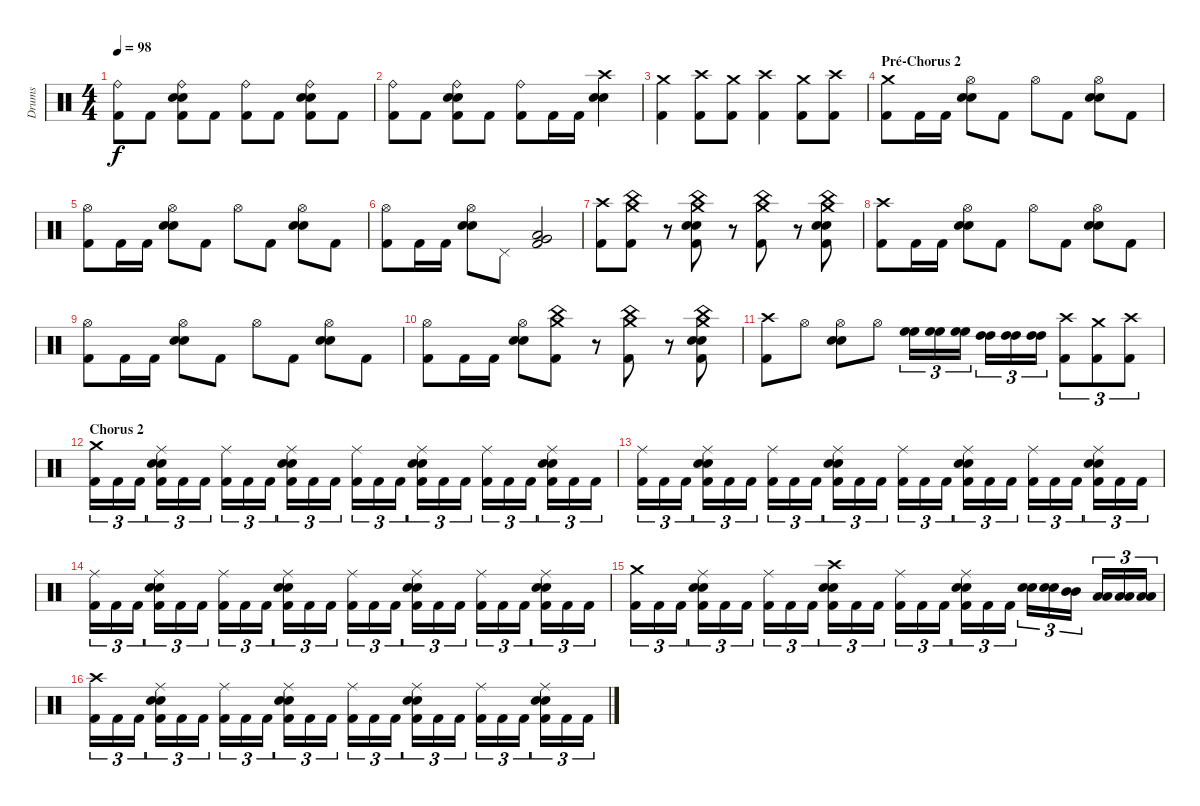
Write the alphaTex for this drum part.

\track ("Drums" "Drums") {instrument percussion}
\staff {score}
\articulation defaults
\ts (4 4)
\tempo 98
\clef neutral
\ks c
("Ride (bell)" "Kick (hit) 2").8{dy f} "Kick (hit) 2".8 ("Ride (bell)" "Snare (hit) 2" "Electric Snare (hit)" "Kick (hit) 2").8 "Kick (hit) 2".8 ("Ride (bell)" "Kick (hit) 2").8 "Kick (hit) 2".8 ("Ride (bell)" "Snare (hit) 2" "Electric Snare (hit)" "Kick (hit) 2").8 "Kick (hit) 2".8 |
("Ride (bell)" "Kick (hit) 2").8 "Kick (hit) 2".8 ("Ride (bell)" "Snare (hit) 2" "Electric Snare (hit)" "Kick (hit) 2").8 "Kick (hit) 2".8 ("Ride (bell)" "Kick (hit) 2").8 "Kick (hit) 2".16 "Kick (hit) 2".16 ("Crash high (hit)" "Electric Snare (hit)" "Snare (hit) 2").4 |
("Crash medium (hit)" "Kick (hit) 2").4 ("Crash high (hit)" "Kick (hit) 2").8 ("Crash medium (hit)" "Kick (hit) 2").8 ("Crash high (hit)" "Kick (hit) 2").4 ("Crash medium (hit)" "Kick (hit) 2").8 ("Crash high (hit)" "Kick (hit) 2").8 |
\section ("" "Pré-Chorus 2")
("Crash medium (hit)" "Kick (hit) 2").8 "Kick (hit) 2".16 "Kick (hit) 2".16 ("Hi-Hat (open)" "Snare (hit) 2" "Electric Snare (hit)").8 "Kick (hit) 2".8 "Hi-Hat (open)".8 "Kick (hit) 2".8 ("Hi-Hat (open)" "Snare (hit) 2" "Electric Snare (hit)").8 "Kick (hit) 2".8 |
("Hi-Hat (open)" "Kick (hit) 2").8 "Kick (hit) 2".16 "Kick (hit) 2".16 ("Hi-Hat (open)" "Snare (hit) 2" "Electric Snare (hit)").8 "Kick (hit) 2".8 "Hi-Hat (open)".8 "Kick (hit) 2".8 ("Hi-Hat (open)" "Snare (hit) 2" "Electric Snare (hit)").8 "Kick (hit) 2".8 |
("Hi-Hat (open)" "Kick (hit) 2").8 "Kick (hit) 2".16 "Kick (hit) 2".16 ("Hi-Hat (open)" "Snare (hit) 2" "Electric Snare (hit)").8 "Pedal Hi-Hat (hit)".8 ("Very Low Tom (hit)" "Low Floor Tom (hit)" "Kick (hit) 2").2 |
("Crash high (hit)" "Kick (hit) 2").8 ("China (hit)" "Crash medium (hit)" "Kick (hit) 2").8 r.8 ("China (hit)" "Snare (hit) 2" "Electric Snare (hit)" "Crash medium (hit)" "Kick (hit) 2").8 r.8 ("China (hit)" "Crash medium (hit)" "Kick (hit) 2").8 r.8 ("China (hit)" "Snare (hit) 2" "Electric Snare (hit)" "Crash medium (hit)" "Kick (hit) 2").8 |
("Crash high (hit)" "Kick (hit) 2").8 "Kick (hit) 2".16 "Kick (hit) 2".16 ("Hi-Hat (open)" "Snare (hit) 2" "Electric Snare (hit)").8 "Kick (hit) 2".8 "Hi-Hat (open)".8 "Kick (hit) 2".8 ("Hi-Hat (open)" "Snare (hit) 2" "Electric Snare (hit)").8 "Kick (hit) 2".8 |
("Hi-Hat (open)" "Kick (hit) 2").8 "Kick (hit) 2".16 "Kick (hit) 2".16 ("Hi-Hat (open)" "Snare (hit) 2" "Electric Snare (hit)").8 "Kick (hit) 2".8 "Hi-Hat (open)".8 "Kick (hit) 2".8 ("Hi-Hat (open)" "Snare (hit) 2" "Electric Snare (hit)").8 "Kick (hit) 2".8 |
("Hi-Hat (open)" "Kick (hit) 2").8 "Kick (hit) 2".16 "Kick (hit) 2".16 ("Hi-Hat (open)" "Snare (hit) 2" "Electric Snare (hit)").8 ("China (hit)" "Crash medium (hit)" "Kick (hit) 2").8 r.8 ("China (hit)" "Crash medium (hit)" "Kick (hit) 2").8 r.8 ("China (hit)" "Snare (hit) 2" "Electric Snare (hit)" "Crash medium (hit)" "Kick (hit) 2").8 |
("Crash high (hit)" "Kick (hit) 2").8 "Hi-Hat (open)".8 ("Hi-Hat (open)" "Snare (hit) 2" "Electric Snare (hit)").8 "Hi-Hat (open)".8 ("High Floor Tom (hit)" "High Floor Tom (hit)").16{tu (3 2)} ("High Floor Tom (hit)" "High Floor Tom (hit)").16{tu (3 2)} ("High Floor Tom (hit)" "High Floor Tom (hit)").16{tu (3 2)} ("High Tom (hit)" "High Tom (hit)").16{tu (3 2)} ("High Tom (hit)" "High Tom (hit)").16{tu (3 2)} ("High Tom (hit)" "High Tom (hit)").16{tu (3 2)} ("Crash high (hit)" "Kick (hit) 2").8{tu (3 2)} ("Crash medium (hit)" "Kick (hit) 2").8{tu (3 2)} ("Crash high (hit)" "Kick (hit) 2").8{tu (3 2)} |
\section ("" "Chorus 2")
("Crash medium (hit)" "Kick (hit) 2").16{tu (3 2)} "Kick (hit) 2".16{tu (3 2)} "Kick (hit) 2".16{tu (3 2)} ("Ride (middle)" "Snare (hit) 2" "Electric Snare (hit)" "Kick (hit) 2").16{tu (3 2)} "Kick (hit) 2".16{tu (3 2)} "Kick (hit) 2".16{tu (3 2)} ("Ride (middle)" "Kick (hit) 2").16{tu (3 2)} "Kick (hit) 2".16{tu (3 2)} "Kick (hit) 2".16{tu (3 2)} ("Ride (middle)" "Snare (hit) 2" "Electric Snare (hit)" "Kick (hit) 2").16{tu (3 2)} "Kick (hit) 2".16{tu (3 2)} "Kick (hit) 2".16{tu (3 2)} ("Ride (middle)" "Kick (hit) 2").16{tu (3 2)} "Kick (hit) 2".16{tu (3 2)} "Kick (hit) 2".16{tu (3 2)} ("Ride (middle)" "Snare (hit) 2" "Electric Snare (hit)" "Kick (hit) 2").16{tu (3 2)} "Kick (hit) 2".16{tu (3 2)} "Kick (hit) 2".16{tu (3 2)} ("Ride (middle)" "Kick (hit) 2").16{tu (3 2)} "Kick (hit) 2".16{tu (3 2)} "Kick (hit) 2".16{tu (3 2)} ("Ride (middle)" "Snare (hit) 2" "Electric Snare (hit)" "Kick (hit) 2").16{tu (3 2)} "Kick (hit) 2".16{tu (3 2)} "Kick (hit) 2".16{tu (3 2)} |
("Ride (middle)" "Kick (hit) 2").16{tu (3 2)} "Kick (hit) 2".16{tu (3 2)} "Kick (hit) 2".16{tu (3 2)} ("Ride (middle)" "Snare (hit) 2" "Electric Snare (hit)" "Kick (hit) 2").16{tu (3 2)} "Kick (hit) 2".16{tu (3 2)} "Kick (hit) 2".16{tu (3 2)} ("Ride (middle)" "Kick (hit) 2").16{tu (3 2)} "Kick (hit) 2".16{tu (3 2)} "Kick (hit) 2".16{tu (3 2)} ("Ride (middle)" "Snare (hit) 2" "Electric Snare (hit)" "Kick (hit) 2").16{tu (3 2)} "Kick (hit) 2".16{tu (3 2)} "Kick (hit) 2".16{tu (3 2)} ("Ride (middle)" "Kick (hit) 2").16{tu (3 2)} "Kick (hit) 2".16{tu (3 2)} "Kick (hit) 2".16{tu (3 2)} ("Ride (middle)" "Snare (hit) 2" "Electric Snare (hit)" "Kick (hit) 2").16{tu (3 2)} "Kick (hit) 2".16{tu (3 2)} "Kick (hit) 2".16{tu (3 2)} ("Ride (middle)" "Kick (hit) 2").16{tu (3 2)} "Kick (hit) 2".16{tu (3 2)} "Kick (hit) 2".16{tu (3 2)} ("Ride (middle)" "Snare (hit) 2" "Electric Snare (hit)" "Kick (hit) 2").16{tu (3 2)} "Kick (hit) 2".16{tu (3 2)} "Kick (hit) 2".16{tu (3 2)} |
("Ride (middle)" "Kick (hit) 2").16{tu (3 2)} "Kick (hit) 2".16{tu (3 2)} "Kick (hit) 2".16{tu (3 2)} ("Ride (middle)" "Snare (hit) 2" "Electric Snare (hit)" "Kick (hit) 2").16{tu (3 2)} "Kick (hit) 2".16{tu (3 2)} "Kick (hit) 2".16{tu (3 2)} ("Ride (middle)" "Kick (hit) 2").16{tu (3 2)} "Kick (hit) 2".16{tu (3 2)} "Kick (hit) 2".16{tu (3 2)} ("Ride (middle)" "Snare (hit) 2" "Electric Snare (hit)" "Kick (hit) 2").16{tu (3 2)} "Kick (hit) 2".16{tu (3 2)} "Kick (hit) 2".16{tu (3 2)} ("Ride (middle)" "Kick (hit) 2").16{tu (3 2)} "Kick (hit) 2".16{tu (3 2)} "Kick (hit) 2".16{tu (3 2)} ("Ride (middle)" "Snare (hit) 2" "Electric Snare (hit)" "Kick (hit) 2").16{tu (3 2)} "Kick (hit) 2".16{tu (3 2)} "Kick (hit) 2".16{tu (3 2)} ("Ride (middle)" "Kick (hit) 2").16{tu (3 2)} "Kick (hit) 2".16{tu (3 2)} "Kick (hit) 2".16{tu (3 2)} ("Ride (middle)" "Snare (hit) 2" "Electric Snare (hit)" "Kick (hit) 2").16{tu (3 2)} "Kick (hit) 2".16{tu (3 2)} "Kick (hit) 2".16{tu (3 2)} |
("Crash medium (hit)" "Kick (hit) 2").16{tu (3 2)} "Kick (hit) 2".16{tu (3 2)} "Kick (hit) 2".16{tu (3 2)} ("Ride (middle)" "Snare (hit) 2" "Electric Snare (hit)" "Kick (hit) 2").16{tu (3 2)} "Kick (hit) 2".16{tu (3 2)} "Kick (hit) 2".16{tu (3 2)} ("Ride (middle)" "Kick (hit) 2").16{tu (3 2)} "Kick (hit) 2".16{tu (3 2)} "Kick (hit) 2".16{tu (3 2)} ("Crash high (hit)" "Snare (hit) 2" "Electric Snare (hit)" "Kick (hit) 2").16{tu (3 2)} "Kick (hit) 2".16{tu (3 2)} "Kick (hit) 2".16{tu (3 2)} ("Ride (middle)" "Kick (hit) 2").16{tu (3 2)} "Kick (hit) 2".16{tu (3 2)} "Kick (hit) 2".16{tu (3 2)} ("Ride (middle)" "Snare (hit) 2" "Electric Snare (hit)" "Kick (hit) 2").16{tu (3 2)} "Kick (hit) 2".16{tu (3 2)} "Kick (hit) 2".16{tu (3 2)} ("Snare (hit) 2" "Electric Snare (hit)").16{tu (3 2)} ("Snare (hit) 2" "Electric Snare (hit)").16{tu (3 2)} ("Mid Tom (hit)" "Mid Tom (hit)").16{tu (3 2)} ("Low Tom (hit)" "Low Tom (hit)").16{tu (3 2)} ("Low Tom (hit)" "Low Tom (hit)").16{tu (3 2)} ("Low Tom (hit)" "Low Tom (hit)").16{tu (3 2)} |
("Crash high (hit)" "Kick (hit) 2").16{tu (3 2)} "Kick (hit) 2".16{tu (3 2)} "Kick (hit) 2".16{tu (3 2)} ("Ride (middle)" "Snare (hit) 2" "Electric Snare (hit)" "Kick (hit) 2").16{tu (3 2)} "Kick (hit) 2".16{tu (3 2)} "Kick (hit) 2".16{tu (3 2)} ("Ride (middle)" "Kick (hit) 2").16{tu (3 2)} "Kick (hit) 2".16{tu (3 2)} "Kick (hit) 2".16{tu (3 2)} ("Ride (middle)" "Snare (hit) 2" "Electric Snare (hit)" "Kick (hit) 2").16{tu (3 2)} "Kick (hit) 2".16{tu (3 2)} "Kick (hit) 2".16{tu (3 2)} ("Ride (middle)" "Kick (hit) 2").16{tu (3 2)} "Kick (hit) 2".16{tu (3 2)} "Kick (hit) 2".16{tu (3 2)} ("Ride (middle)" "Snare (hit) 2" "Electric Snare (hit)" "Kick (hit) 2").16{tu (3 2)} "Kick (hit) 2".16{tu (3 2)} "Kick (hit) 2".16{tu (3 2)} ("Ride (middle)" "Kick (hit) 2").16{tu (3 2)} "Kick (hit) 2".16{tu (3 2)} "Kick (hit) 2".16{tu (3 2)} ("Ride (middle)" "Snare (hit) 2" "Electric Snare (hit)" "Kick (hit) 2").16{tu (3 2)} "Kick (hit) 2".16{tu (3 2)} "Kick (hit) 2".16{tu (3 2)}
